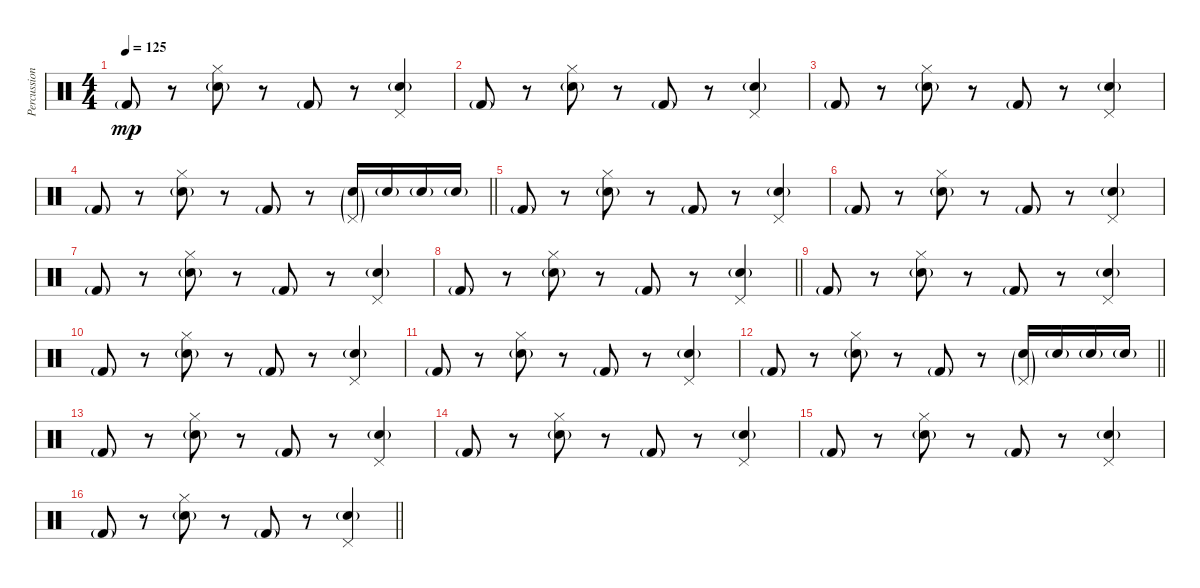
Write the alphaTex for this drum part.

\track ("Percussion" "Percussion") {instrument percussion}
\staff {score}
\articulation defaults
\ts (4 4)
\tempo 125
\clef neutral
\ks c "Kick (hit) 2"{g}.8{dy mp}
r.8 ("Electric Snare (hit)"{g} "Hi-Hat (closed)").8 r.8 "Kick (hit) 2"{g}.8 r.8 ("Electric Snare (hit)"{g} "Pedal Hi-Hat (hit)").4 |
"Kick (hit) 2"{g}.8 r.8 ("Electric Snare (hit)"{g} "Hi-Hat (closed)").8 r.8 "Kick (hit) 2"{g}.8 r.8 ("Electric Snare (hit)"{g} "Pedal Hi-Hat (hit)").4 |
"Kick (hit) 2"{g}.8 r.8 ("Electric Snare (hit)"{g} "Hi-Hat (closed)").8 r.8 "Kick (hit) 2"{g}.8 r.8 ("Electric Snare (hit)"{g} "Pedal Hi-Hat (hit)").4 |
\barLineRight lightlight "Kick (hit) 2"{g}.8
r.8 ("Electric Snare (hit)"{g} "Hi-Hat (closed)").8 r.8 "Kick (hit) 2"{g}.8 r.8 ("Electric Snare (hit)"{g} "Pedal Hi-Hat (hit)"{g}).16 "Electric Snare (hit)"{g}.16 "Electric Snare (hit)"{g}.16 "Electric Snare (hit)"{g}.16 |
"Kick (hit) 2"{g}.8 r.8 ("Electric Snare (hit)"{g} "Hi-Hat (closed)").8 r.8 "Kick (hit) 2"{g}.8 r.8 ("Electric Snare (hit)"{g} "Pedal Hi-Hat (hit)").4 |
"Kick (hit) 2"{g}.8 r.8 ("Electric Snare (hit)"{g} "Hi-Hat (closed)").8 r.8 "Kick (hit) 2"{g}.8 r.8 ("Electric Snare (hit)"{g} "Pedal Hi-Hat (hit)").4 |
"Kick (hit) 2"{g}.8 r.8 ("Electric Snare (hit)"{g} "Hi-Hat (closed)").8 r.8 "Kick (hit) 2"{g}.8 r.8 ("Electric Snare (hit)"{g} "Pedal Hi-Hat (hit)").4 |
\barLineRight lightlight "Kick (hit) 2"{g}.8
r.8 ("Electric Snare (hit)"{g} "Hi-Hat (closed)").8 r.8 "Kick (hit) 2"{g}.8 r.8 ("Electric Snare (hit)"{g} "Pedal Hi-Hat (hit)").4 |
"Kick (hit) 2"{g}.8 r.8 ("Electric Snare (hit)"{g} "Hi-Hat (closed)").8 r.8 "Kick (hit) 2"{g}.8 r.8 ("Electric Snare (hit)"{g} "Pedal Hi-Hat (hit)").4 |
"Kick (hit) 2"{g}.8 r.8 ("Electric Snare (hit)"{g} "Hi-Hat (closed)").8 r.8 "Kick (hit) 2"{g}.8 r.8 ("Electric Snare (hit)"{g} "Pedal Hi-Hat (hit)").4 |
"Kick (hit) 2"{g}.8 r.8 ("Electric Snare (hit)"{g} "Hi-Hat (closed)").8 r.8 "Kick (hit) 2"{g}.8 r.8 ("Electric Snare (hit)"{g} "Pedal Hi-Hat (hit)").4 |
\barLineRight lightlight "Kick (hit) 2"{g}.8
r.8 ("Electric Snare (hit)"{g} "Hi-Hat (closed)").8 r.8 "Kick (hit) 2"{g}.8 r.8 ("Electric Snare (hit)"{g} "Pedal Hi-Hat (hit)"{g}).16 "Electric Snare (hit)"{g}.16 "Electric Snare (hit)"{g}.16 "Electric Snare (hit)"{g}.16 |
"Kick (hit) 2"{g}.8 r.8 ("Electric Snare (hit)"{g} "Hi-Hat (closed)").8 r.8 "Kick (hit) 2"{g}.8 r.8 ("Electric Snare (hit)"{g} "Pedal Hi-Hat (hit)").4 |
"Kick (hit) 2"{g}.8 r.8 ("Electric Snare (hit)"{g} "Hi-Hat (closed)").8 r.8 "Kick (hit) 2"{g}.8 r.8 ("Electric Snare (hit)"{g} "Pedal Hi-Hat (hit)").4 |
"Kick (hit) 2"{g}.8 r.8 ("Electric Snare (hit)"{g} "Hi-Hat (closed)").8 r.8 "Kick (hit) 2"{g}.8 r.8 ("Electric Snare (hit)"{g} "Pedal Hi-Hat (hit)").4 |
\barLineRight lightlight "Kick (hit) 2"{g}.8
r.8 ("Electric Snare (hit)"{g} "Hi-Hat (closed)").8 r.8 "Kick (hit) 2"{g}.8 r.8 ("Electric Snare (hit)"{g} "Pedal Hi-Hat (hit)").4
